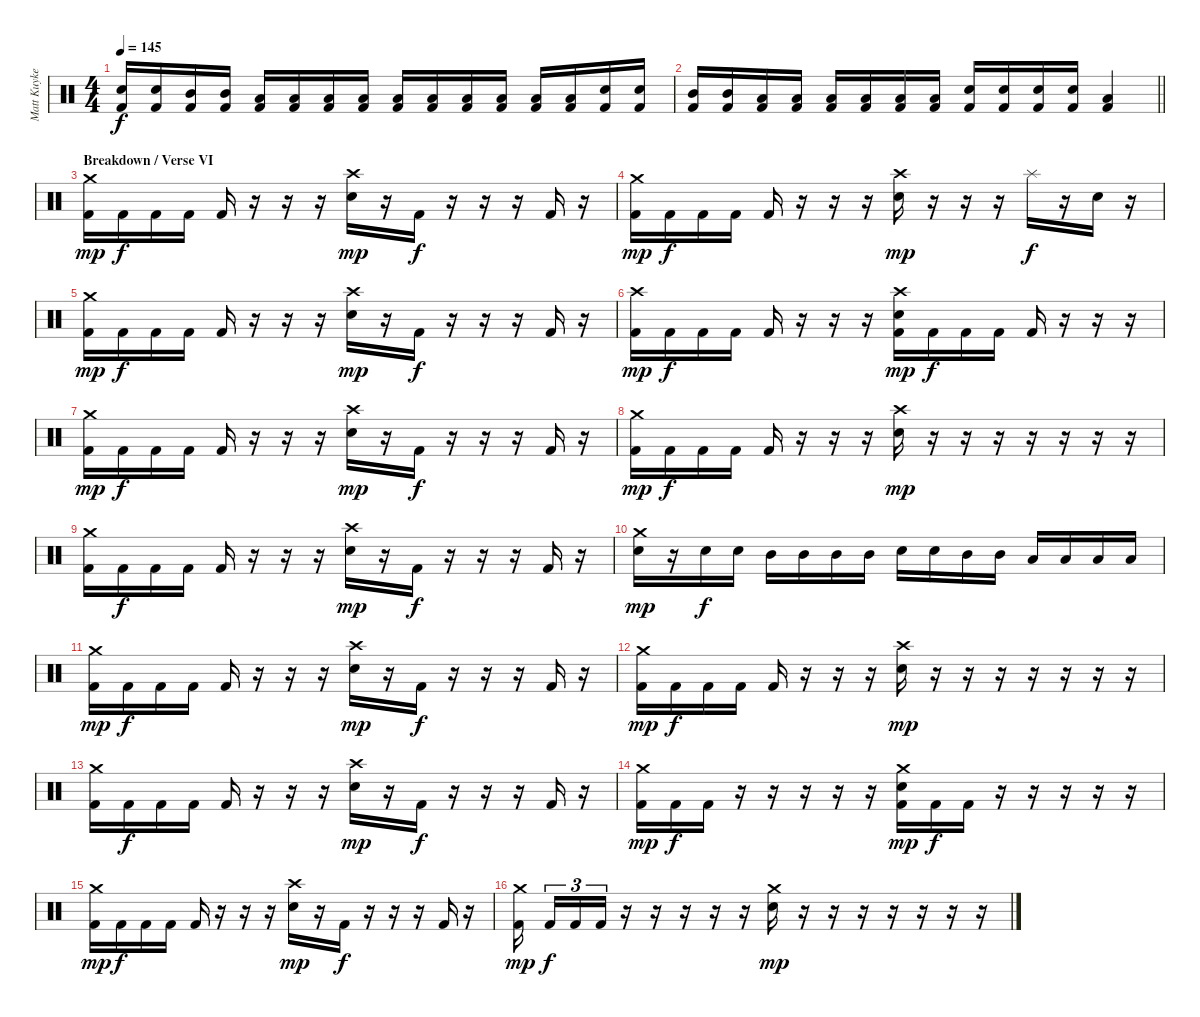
\track ("Matt Kuykendall" "Matt Kuyke") {instrument percussion}
\staff {score}
\articulation defaults
\ts (4 4)
\tempo 145
\clef neutral
\ks c
("Electric Snare (hit)" "Kick (hit) 2").16{dy f} ("Electric Snare (hit)" "Kick (hit) 2").16 ("Mid Tom (hit)" "Kick (hit) 2").16 ("Mid Tom (hit)" "Kick (hit) 2").16 ("Low Tom (hit)" "Kick (hit) 2").16 ("Low Tom (hit)" "Kick (hit) 2").16 ("Low Tom (hit)" "Kick (hit) 2").16 ("Low Tom (hit)" "Kick (hit) 2").16 ("Low Tom (hit)" "Kick (hit) 2").16 ("Low Tom (hit)" "Kick (hit) 2").16 ("Low Tom (hit)" "Kick (hit) 2").16 ("Low Tom (hit)" "Kick (hit) 2").16 ("Low Tom (hit)" "Kick (hit) 2").16 ("Low Tom (hit)" "Kick (hit) 2").16 ("Electric Snare (hit)" "Kick (hit) 2").16 ("Electric Snare (hit)" "Kick (hit) 2").16 |
\barLineRight lightlight
("Mid Tom (hit)" "Kick (hit) 2").16 ("Mid Tom (hit)" "Kick (hit) 2").16 ("Low Tom (hit)" "Kick (hit) 2").16 ("Low Tom (hit)" "Kick (hit) 2").16 ("Low Tom (hit)" "Kick (hit) 2").16 ("Low Tom (hit)" "Kick (hit) 2").16 ("Low Tom (hit)" "Kick (hit) 2").16 ("Low Tom (hit)" "Kick (hit) 2").16 ("Electric Snare (hit)" "Kick (hit) 2").16 ("Electric Snare (hit)" "Kick (hit) 2").16 ("Electric Snare (hit)" "Kick (hit) 2").16 ("Electric Snare (hit)" "Kick (hit) 2").16 ("Low Tom (hit)" "Kick (hit) 2").4 |
\section ("" "Breakdown / Verse VI")
("Crash medium (hit)" "Kick (hit) 2").16{dy mp} "Kick (hit) 2".16{dy f} "Kick (hit) 2".16 "Kick (hit) 2".16 "Kick (hit) 2".16 r.16 r.16 r.16 ("Crash high (hit)" "Electric Snare (hit)").16{dy mp} r.16 "Kick (hit) 2".16{dy f} r.16 r.16 r.16 "Kick (hit) 2".16 r.16 |
("Crash medium (hit)" "Kick (hit) 2").16{dy mp} "Kick (hit) 2".16{dy f} "Kick (hit) 2".16 "Kick (hit) 2".16 "Kick (hit) 2".16 r.16 r.16 r.16 ("Crash high (hit)" "Electric Snare (hit)").16{dy mp} r.16 r.16 r.16 "Splash (hit)".16{dy f} r.16 "Electric Snare (hit)".16 r.16 |
("Crash medium (hit)" "Kick (hit) 2").16{dy mp} "Kick (hit) 2".16{dy f} "Kick (hit) 2".16 "Kick (hit) 2".16 "Kick (hit) 2".16 r.16 r.16 r.16 ("Crash high (hit)" "Electric Snare (hit)").16{dy mp} r.16 "Kick (hit) 2".16{dy f} r.16 r.16 r.16 "Kick (hit) 2".16 r.16 |
("Crash high (hit)" "Kick (hit) 2").16{dy mp} "Kick (hit) 2".16{dy f} "Kick (hit) 2".16 "Kick (hit) 2".16 "Kick (hit) 2".16 r.16 r.16 r.16 ("Crash high (hit)" "Electric Snare (hit)" "Kick (hit) 2").16{dy mp} "Kick (hit) 2".16{dy f} "Kick (hit) 2".16 "Kick (hit) 2".16 "Kick (hit) 2".16 r.16 r.16 r.16 |
("Crash medium (hit)" "Kick (hit) 2").16{dy mp} "Kick (hit) 2".16{dy f} "Kick (hit) 2".16 "Kick (hit) 2".16 "Kick (hit) 2".16 r.16 r.16 r.16 ("Crash high (hit)" "Electric Snare (hit)").16{dy mp} r.16 "Kick (hit) 2".16{dy f} r.16 r.16 r.16 "Kick (hit) 2".16 r.16 |
("Crash medium (hit)" "Kick (hit) 2").16{dy mp} "Kick (hit) 2".16{dy f} "Kick (hit) 2".16 "Kick (hit) 2".16 "Kick (hit) 2".16 r.16 r.16 r.16 ("Crash high (hit)" "Electric Snare (hit)").16{dy mp} r.16 r.16 r.16 r.16 r.16 r.16 r.16 |
("Crash medium (hit)" "Kick (hit) 2").16 "Kick (hit) 2".16{dy f} "Kick (hit) 2".16 "Kick (hit) 2".16 "Kick (hit) 2".16 r.16 r.16 r.16 ("Crash high (hit)" "Electric Snare (hit)").16{dy mp} r.16 "Kick (hit) 2".16{dy f} r.16 r.16 r.16 "Kick (hit) 2".16 r.16 |
("Crash medium (hit)" "Electric Snare (hit)").16{dy mp} r.16 "Electric Snare (hit)".16{dy f} "Electric Snare (hit)".16 "Mid Tom (hit)".16 "Mid Tom (hit)".16 "Mid Tom (hit)".16 "Mid Tom (hit)".16 "Electric Snare (hit)".16 "Electric Snare (hit)".16 "Mid Tom (hit)".16 "Mid Tom (hit)".16 "Low Tom (hit)".16 "Low Tom (hit)".16 "Low Tom (hit)".16 "Low Tom (hit)".16 |
("Crash medium (hit)" "Kick (hit) 2").16{dy mp} "Kick (hit) 2".16{dy f} "Kick (hit) 2".16 "Kick (hit) 2".16 "Kick (hit) 2".16 r.16 r.16 r.16 ("Crash high (hit)" "Electric Snare (hit)").16{dy mp} r.16 "Kick (hit) 2".16{dy f} r.16 r.16 r.16 "Kick (hit) 2".16 r.16 |
("Crash medium (hit)" "Kick (hit) 2").16{dy mp} "Kick (hit) 2".16{dy f} "Kick (hit) 2".16 "Kick (hit) 2".16 "Kick (hit) 2".16 r.16 r.16 r.16 ("Crash high (hit)" "Electric Snare (hit)").16{dy mp} r.16 r.16 r.16 r.16 r.16 r.16 r.16 |
("Crash medium (hit)" "Kick (hit) 2").16 "Kick (hit) 2".16{dy f} "Kick (hit) 2".16 "Kick (hit) 2".16 "Kick (hit) 2".16 r.16 r.16 r.16 ("Crash high (hit)" "Electric Snare (hit)").16{dy mp} r.16 "Kick (hit) 2".16{dy f} r.16 r.16 r.16 "Kick (hit) 2".16 r.16 |
("Crash medium (hit)" "Kick (hit) 2").16{dy mp} "Kick (hit) 2".16{dy f} "Kick (hit) 2".16 r.16 r.16 r.16 r.16 r.16 ("Crash medium (hit)" "Electric Snare (hit)" "Kick (hit) 2").16{dy mp} "Kick (hit) 2".16{dy f} "Kick (hit) 2".16 r.16 r.16 r.16 r.16 r.16 |
("Crash medium (hit)" "Kick (hit) 2").16{dy mp} "Kick (hit) 2".16{dy f} "Kick (hit) 2".16 "Kick (hit) 2".16 "Kick (hit) 2".16 r.16 r.16 r.16 ("Crash high (hit)" "Electric Snare (hit)").16{dy mp} r.16 "Kick (hit) 2".16{dy f} r.16 r.16 r.16 "Kick (hit) 2".16 r.16 |
("Crash medium (hit)" "Kick (hit) 2").16{dy mp beam splitsecondary} "Kick (hit) 2".16{tu (3 2) dy f} "Kick (hit) 2".16{tu (3 2)} "Kick (hit) 2".16{tu (3 2)} r.16 r.16 r.16 r.16 r.16 ("Crash medium (hit)" "Electric Snare (hit)").16{dy mp} r.16 r.16 r.16 r.16 r.16 r.16 r.16
